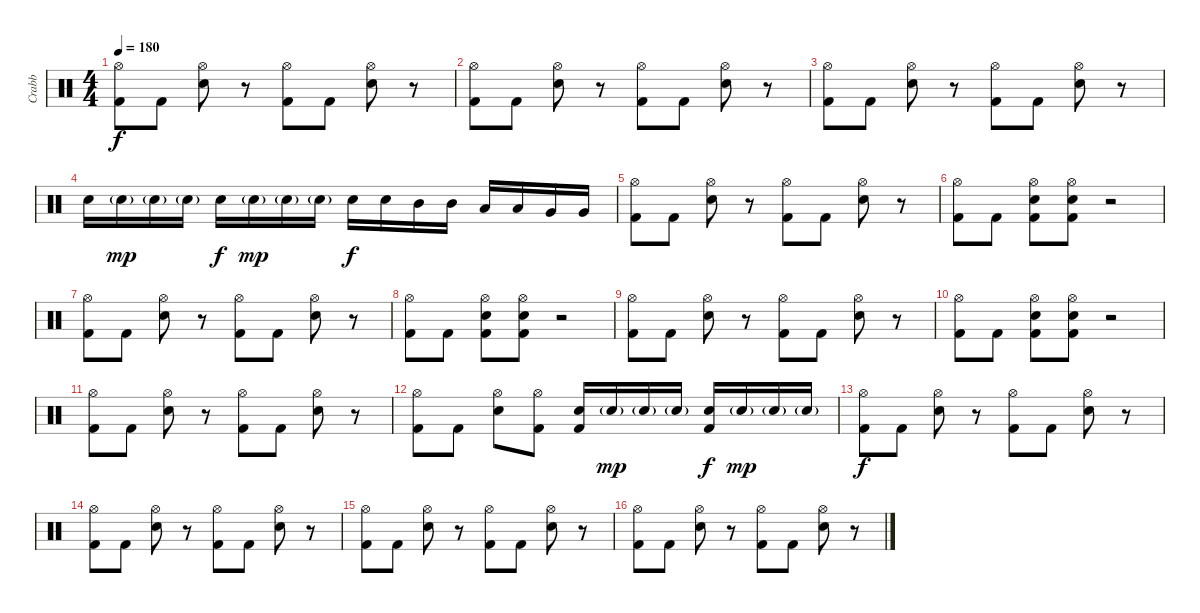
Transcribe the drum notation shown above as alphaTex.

\track ("Crabb" "Crabb") {instrument percussion}
\staff {score}
\articulation defaults
\ts (4 4)
\tempo 180
\clef neutral
\ks c
("Hi-Hat (open)" "Kick (hit) 2").8{dy f} "Kick (hit) 2".8 ("Hi-Hat (open)" "Electric Snare (hit)").8 r.8 ("Hi-Hat (open)" "Kick (hit) 2").8 "Kick (hit) 2".8 ("Hi-Hat (open)" "Electric Snare (hit)").8 r.8 |
("Hi-Hat (open)" "Kick (hit) 2").8 "Kick (hit) 2".8 ("Hi-Hat (open)" "Electric Snare (hit)").8 r.8 ("Hi-Hat (open)" "Kick (hit) 2").8 "Kick (hit) 2".8 ("Hi-Hat (open)" "Electric Snare (hit)").8 r.8 |
("Hi-Hat (open)" "Kick (hit) 2").8 "Kick (hit) 2".8 ("Hi-Hat (open)" "Electric Snare (hit)").8 r.8 ("Hi-Hat (open)" "Kick (hit) 2").8 "Kick (hit) 2".8 ("Hi-Hat (open)" "Electric Snare (hit)").8 r.8 |
"Electric Snare (hit)".16 "Electric Snare (hit)"{g}.16{dy mp} "Electric Snare (hit)"{g}.16 "Electric Snare (hit)"{g}.16 "Electric Snare (hit)".16{dy f} "Electric Snare (hit)"{g}.16{dy mp} "Electric Snare (hit)"{g}.16 "Electric Snare (hit)"{g}.16 "Electric Snare (hit)".16{dy f} "Electric Snare (hit)".16 "Mid Tom (hit)".16 "Mid Tom (hit)".16 "Low Tom (hit)".16 "Low Tom (hit)".16 "Very Low Tom (hit)".16 "Very Low Tom (hit)".16 |
("Hi-Hat (open)" "Kick (hit) 2").8 "Kick (hit) 2".8 ("Hi-Hat (open)" "Electric Snare (hit)").8 r.8 ("Hi-Hat (open)" "Kick (hit) 2").8 "Kick (hit) 2".8 ("Hi-Hat (open)" "Electric Snare (hit)").8 r.8 |
("Hi-Hat (open)" "Kick (hit) 2").8 "Kick (hit) 2".8 ("Hi-Hat (open)" "Electric Snare (hit)" "Kick (hit) 2").8 ("Hi-Hat (open)" "Electric Snare (hit)" "Kick (hit) 2").8 r.2 |
("Hi-Hat (open)" "Kick (hit) 2").8 "Kick (hit) 2".8 ("Hi-Hat (open)" "Electric Snare (hit)").8 r.8 ("Hi-Hat (open)" "Kick (hit) 2").8 "Kick (hit) 2".8 ("Hi-Hat (open)" "Electric Snare (hit)").8 r.8 |
("Hi-Hat (open)" "Kick (hit) 2").8 "Kick (hit) 2".8 ("Hi-Hat (open)" "Electric Snare (hit)" "Kick (hit) 2").8 ("Hi-Hat (open)" "Electric Snare (hit)" "Kick (hit) 2").8 r.2 |
("Hi-Hat (open)" "Kick (hit) 2").8 "Kick (hit) 2".8 ("Hi-Hat (open)" "Electric Snare (hit)").8 r.8 ("Hi-Hat (open)" "Kick (hit) 2").8 "Kick (hit) 2".8 ("Hi-Hat (open)" "Electric Snare (hit)").8 r.8 |
("Hi-Hat (open)" "Kick (hit) 2").8 "Kick (hit) 2".8 ("Hi-Hat (open)" "Electric Snare (hit)" "Kick (hit) 2").8 ("Hi-Hat (open)" "Electric Snare (hit)" "Kick (hit) 2").8 r.2 |
("Hi-Hat (open)" "Kick (hit) 2").8 "Kick (hit) 2".8 ("Hi-Hat (open)" "Electric Snare (hit)").8 r.8 ("Hi-Hat (open)" "Kick (hit) 2").8 "Kick (hit) 2".8 ("Hi-Hat (open)" "Electric Snare (hit)").8 r.8 |
("Hi-Hat (open)" "Kick (hit) 2").8 "Kick (hit) 2".8 ("Hi-Hat (open)" "Electric Snare (hit)").8 ("Hi-Hat (open)" "Kick (hit) 2").8 ("Electric Snare (hit)" "Kick (hit) 2").16 "Electric Snare (hit)"{g}.16{dy mp} "Electric Snare (hit)"{g}.16 "Electric Snare (hit)"{g}.16 ("Electric Snare (hit)" "Kick (hit) 2").16{dy f} "Electric Snare (hit)"{g}.16{dy mp} "Electric Snare (hit)"{g}.16 "Electric Snare (hit)"{g}.16 |
("Hi-Hat (open)" "Kick (hit) 2").8{dy f} "Kick (hit) 2".8 ("Hi-Hat (open)" "Electric Snare (hit)").8 r.8 ("Hi-Hat (open)" "Kick (hit) 2").8 "Kick (hit) 2".8 ("Hi-Hat (open)" "Electric Snare (hit)").8 r.8 |
("Hi-Hat (open)" "Kick (hit) 2").8 "Kick (hit) 2".8 ("Hi-Hat (open)" "Electric Snare (hit)").8 r.8 ("Hi-Hat (open)" "Kick (hit) 2").8 "Kick (hit) 2".8 ("Hi-Hat (open)" "Electric Snare (hit)").8 r.8 |
("Hi-Hat (open)" "Kick (hit) 2").8 "Kick (hit) 2".8 ("Hi-Hat (open)" "Electric Snare (hit)").8 r.8 ("Hi-Hat (open)" "Kick (hit) 2").8 "Kick (hit) 2".8 ("Hi-Hat (open)" "Electric Snare (hit)").8 r.8 |
("Hi-Hat (open)" "Kick (hit) 2").8 "Kick (hit) 2".8 ("Hi-Hat (open)" "Electric Snare (hit)").8 r.8 ("Hi-Hat (open)" "Kick (hit) 2").8 "Kick (hit) 2".8 ("Hi-Hat (open)" "Electric Snare (hit)").8 r.8
